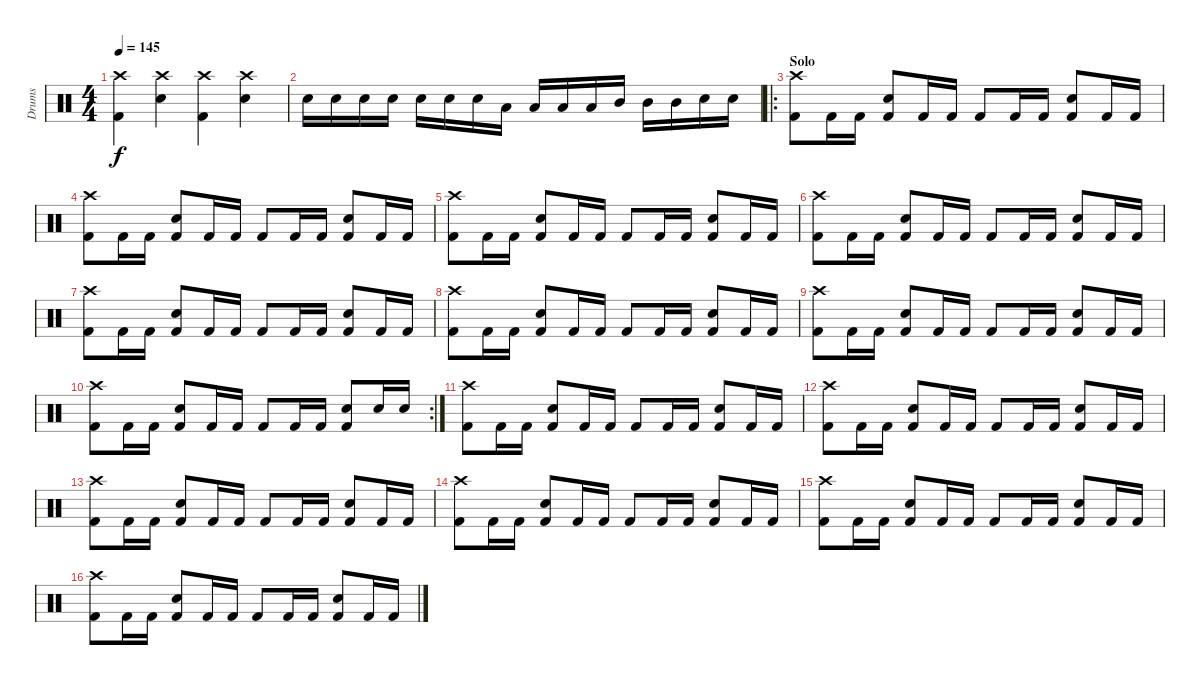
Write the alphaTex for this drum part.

\track ("Drums" "Drums") {instrument percussion}
\staff {score}
\articulation defaults
\ts (4 4)
\tempo 145
\clef neutral
\ks c
("Crash high (hit)" "Kick (hit) 2").4{dy f} ("Crash high (hit)" "Electric Snare (hit)").4 ("Crash high (hit)" "Kick (hit) 2").4 ("Crash high (hit)" "Electric Snare (hit)").4 |
"Electric Snare (hit)".16 "Electric Snare (hit)".16 "Electric Snare (hit)".16 "Electric Snare (hit)".16 "Electric Snare (hit)".16 "Electric Snare (hit)".16 "Electric Snare (hit)".16 "Low Tom (hit)".16 "Low Tom (hit)".16 "Low Tom (hit)".16 "Low Tom (hit)".16 "Mid Tom (hit)".16 "Mid Tom (hit)".16 "Mid Tom (hit)".16 "Electric Snare (hit)".16 "Electric Snare (hit)".16 |
\ro
\section ("" "Solo")
("Crash high (hit)" "Kick (hit) 2").8 "Kick (hit) 2".16 "Kick (hit) 2".16 ("Electric Snare (hit)" "Kick (hit) 2").8 "Kick (hit) 2".16 "Kick (hit) 2".16 "Kick (hit) 2".8 "Kick (hit) 2".16 "Kick (hit) 2".16 ("Electric Snare (hit)" "Kick (hit) 2").8 "Kick (hit) 2".16 "Kick (hit) 2".16 |
("Crash high (hit)" "Kick (hit) 2").8 "Kick (hit) 2".16 "Kick (hit) 2".16 ("Electric Snare (hit)" "Kick (hit) 2").8 "Kick (hit) 2".16 "Kick (hit) 2".16 "Kick (hit) 2".8 "Kick (hit) 2".16 "Kick (hit) 2".16 ("Electric Snare (hit)" "Kick (hit) 2").8 "Kick (hit) 2".16 "Kick (hit) 2".16 |
("Crash high (hit)" "Kick (hit) 2").8 "Kick (hit) 2".16 "Kick (hit) 2".16 ("Electric Snare (hit)" "Kick (hit) 2").8 "Kick (hit) 2".16 "Kick (hit) 2".16 "Kick (hit) 2".8 "Kick (hit) 2".16 "Kick (hit) 2".16 ("Electric Snare (hit)" "Kick (hit) 2").8 "Kick (hit) 2".16 "Kick (hit) 2".16 |
("Crash high (hit)" "Kick (hit) 2").8 "Kick (hit) 2".16 "Kick (hit) 2".16 ("Electric Snare (hit)" "Kick (hit) 2").8 "Kick (hit) 2".16 "Kick (hit) 2".16 "Kick (hit) 2".8 "Kick (hit) 2".16 "Kick (hit) 2".16 ("Electric Snare (hit)" "Kick (hit) 2").8 "Kick (hit) 2".16 "Kick (hit) 2".16 |
("Crash high (hit)" "Kick (hit) 2").8 "Kick (hit) 2".16 "Kick (hit) 2".16 ("Electric Snare (hit)" "Kick (hit) 2").8 "Kick (hit) 2".16 "Kick (hit) 2".16 "Kick (hit) 2".8 "Kick (hit) 2".16 "Kick (hit) 2".16 ("Electric Snare (hit)" "Kick (hit) 2").8 "Kick (hit) 2".16 "Kick (hit) 2".16 |
("Crash high (hit)" "Kick (hit) 2").8 "Kick (hit) 2".16 "Kick (hit) 2".16 ("Electric Snare (hit)" "Kick (hit) 2").8 "Kick (hit) 2".16 "Kick (hit) 2".16 "Kick (hit) 2".8 "Kick (hit) 2".16 "Kick (hit) 2".16 ("Electric Snare (hit)" "Kick (hit) 2").8 "Kick (hit) 2".16 "Kick (hit) 2".16 |
("Crash high (hit)" "Kick (hit) 2").8 "Kick (hit) 2".16 "Kick (hit) 2".16 ("Electric Snare (hit)" "Kick (hit) 2").8 "Kick (hit) 2".16 "Kick (hit) 2".16 "Kick (hit) 2".8 "Kick (hit) 2".16 "Kick (hit) 2".16 ("Electric Snare (hit)" "Kick (hit) 2").8 "Kick (hit) 2".16 "Kick (hit) 2".16 |
\rc 2
("Crash high (hit)" "Kick (hit) 2").8 "Kick (hit) 2".16 "Kick (hit) 2".16 ("Electric Snare (hit)" "Kick (hit) 2").8 "Kick (hit) 2".16 "Kick (hit) 2".16 "Kick (hit) 2".8 "Kick (hit) 2".16 "Kick (hit) 2".16 ("Electric Snare (hit)" "Kick (hit) 2").8 "Electric Snare (hit)".16 "Electric Snare (hit)".16 |
("Crash high (hit)" "Kick (hit) 2").8 "Kick (hit) 2".16 "Kick (hit) 2".16 ("Electric Snare (hit)" "Kick (hit) 2").8 "Kick (hit) 2".16 "Kick (hit) 2".16 "Kick (hit) 2".8 "Kick (hit) 2".16 "Kick (hit) 2".16 ("Electric Snare (hit)" "Kick (hit) 2").8 "Kick (hit) 2".16 "Kick (hit) 2".16 |
("Crash high (hit)" "Kick (hit) 2").8 "Kick (hit) 2".16 "Kick (hit) 2".16 ("Electric Snare (hit)" "Kick (hit) 2").8 "Kick (hit) 2".16 "Kick (hit) 2".16 "Kick (hit) 2".8 "Kick (hit) 2".16 "Kick (hit) 2".16 ("Electric Snare (hit)" "Kick (hit) 2").8 "Kick (hit) 2".16 "Kick (hit) 2".16 |
("Crash high (hit)" "Kick (hit) 2").8 "Kick (hit) 2".16 "Kick (hit) 2".16 ("Electric Snare (hit)" "Kick (hit) 2").8 "Kick (hit) 2".16 "Kick (hit) 2".16 "Kick (hit) 2".8 "Kick (hit) 2".16 "Kick (hit) 2".16 ("Electric Snare (hit)" "Kick (hit) 2").8 "Kick (hit) 2".16 "Kick (hit) 2".16 |
("Crash high (hit)" "Kick (hit) 2").8 "Kick (hit) 2".16 "Kick (hit) 2".16 ("Electric Snare (hit)" "Kick (hit) 2").8 "Kick (hit) 2".16 "Kick (hit) 2".16 "Kick (hit) 2".8 "Kick (hit) 2".16 "Kick (hit) 2".16 ("Electric Snare (hit)" "Kick (hit) 2").8 "Kick (hit) 2".16 "Kick (hit) 2".16 |
("Crash high (hit)" "Kick (hit) 2").8 "Kick (hit) 2".16 "Kick (hit) 2".16 ("Electric Snare (hit)" "Kick (hit) 2").8 "Kick (hit) 2".16 "Kick (hit) 2".16 "Kick (hit) 2".8 "Kick (hit) 2".16 "Kick (hit) 2".16 ("Electric Snare (hit)" "Kick (hit) 2").8 "Kick (hit) 2".16 "Kick (hit) 2".16 |
("Crash high (hit)" "Kick (hit) 2").8 "Kick (hit) 2".16 "Kick (hit) 2".16 ("Electric Snare (hit)" "Kick (hit) 2").8 "Kick (hit) 2".16 "Kick (hit) 2".16 "Kick (hit) 2".8 "Kick (hit) 2".16 "Kick (hit) 2".16 ("Electric Snare (hit)" "Kick (hit) 2").8 "Kick (hit) 2".16 "Kick (hit) 2".16
